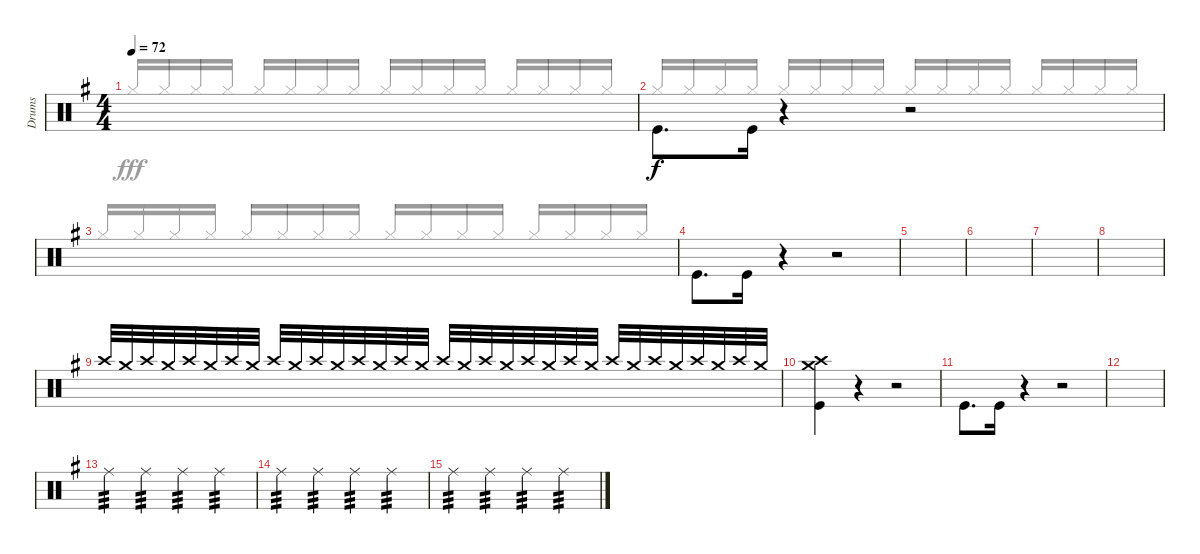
\track ("Drums" "Drums") {instrument percussion}
\staff {score}
\articulation defaults
\voice
\ts (4 4)
\tempo 72
\clef neutral
\ks g
|
"Kick (hit)".8{d beam Down} "Kick (hit)".16{beam Down} r.4 r.2 |
|
"Kick (hit)".8{d beam Down} "Kick (hit)".16{beam Down} r.4 r.2 |
|
|
|
|
"Crash high (hit)".32{beam Up} "Crash medium (hit)".32{beam Up} "Crash high (hit)".32{beam Up} "Crash medium (hit)".32{beam Up} "Crash high (hit)".32{beam Up} "Crash medium (hit)".32{beam Up} "Crash high (hit)".32{beam Up} "Crash medium (hit)".32{beam Up} "Crash high (hit)".32{beam Up} "Crash medium (hit)".32{beam Up} "Crash high (hit)".32{beam Up} "Crash medium (hit)".32{beam Up} "Crash high (hit)".32{beam Up} "Crash medium (hit)".32{beam Up} "Crash high (hit)".32{beam Up} "Crash medium (hit)".32{beam Up} "Crash high (hit)".32{beam Up} "Crash medium (hit)".32{beam Up} "Crash high (hit)".32{beam Up} "Crash medium (hit)".32{beam Up} "Crash high (hit)".32{beam Up} "Crash medium (hit)".32{beam Up} "Crash high (hit)".32{beam Up} "Crash medium (hit)".32{beam Up} "Crash high (hit)".32{beam Up} "Crash medium (hit)".32{beam Up} "Crash high (hit)".32{beam Up} "Crash medium (hit)".32{beam Up} "Crash high (hit)".32{beam Up} "Crash medium (hit)".32{beam Up} "Crash high (hit)".32{beam Up} "Crash medium (hit)".32{beam Up} |
("Crash medium (hit)" "Crash high (hit)" "Kick (hit)").4 r.4 r.2 |
"Kick (hit)".8{d beam Down} "Kick (hit)".16{beam Down} r.4 r.2 |
|
"Ride (middle)".4{tp 3} "Ride (middle)".4{tp 3} "Ride (middle)".4{tp 3} "Ride (middle)".4{tp 3} |
"Ride (middle)".4{tp 3} "Ride (middle)".4{tp 3} "Ride (middle)".4{tp 3} "Ride (middle)".4{tp 3} |
"Ride (middle)".4{tp 3} "Ride (middle)".4{tp 3} "Ride (middle)".4{tp 3} "Ride (middle)".4{tp 3} |
\voice
\clef neutral
\ottava regular
\simile none
\ks g "Hi-Hat (closed)".16{dy fff beam Up} "Hi-Hat (closed)".16{beam Up} "Hi-Hat (closed)".16{beam Up} "Hi-Hat (closed)".16{beam Up} "Hi-Hat (closed)".16{beam Up} "Hi-Hat (closed)".16{beam Up} "Hi-Hat (closed)".16{beam Up} "Hi-Hat (closed)".16{beam Up} "Hi-Hat (closed)".16{beam Up} "Hi-Hat (closed)".16{beam Up} "Hi-Hat (closed)".16{beam Up} "Hi-Hat (closed)".16{beam Up} "Hi-Hat (closed)".16{beam Up} "Hi-Hat (closed)".16{beam Up} "Hi-Hat (closed)".16{beam Up} "Hi-Hat (closed)".16{beam Up}
|
"Hi-Hat (closed)".16{beam Up} "Hi-Hat (closed)".16{beam Up} "Hi-Hat (closed)".16{beam Up} "Hi-Hat (closed)".16{beam Up} "Hi-Hat (closed)".16{beam Up} "Hi-Hat (closed)".16{beam Up} "Hi-Hat (closed)".16{beam Up} "Hi-Hat (closed)".16{beam Up} "Hi-Hat (closed)".16{beam Up} "Hi-Hat (closed)".16{beam Up} "Hi-Hat (closed)".16{beam Up} "Hi-Hat (closed)".16{beam Up} "Hi-Hat (closed)".16{beam Up} "Hi-Hat (closed)".16{beam Up} "Hi-Hat (closed)".16{beam Up} "Hi-Hat (closed)".16{beam Up} |
"Hi-Hat (closed)".16{beam Up} "Hi-Hat (closed)".16{beam Up} "Hi-Hat (closed)".16{beam Up} "Hi-Hat (closed)".16{beam Up} "Hi-Hat (closed)".16{beam Up} "Hi-Hat (closed)".16{beam Up} "Hi-Hat (closed)".16{beam Up} "Hi-Hat (closed)".16{beam Up} "Hi-Hat (closed)".16{beam Up} "Hi-Hat (closed)".16{beam Up} "Hi-Hat (closed)".16{beam Up} "Hi-Hat (closed)".16{beam Up} "Hi-Hat (closed)".16{beam Up} "Hi-Hat (closed)".16{beam Up} "Hi-Hat (closed)".16{beam Up} "Hi-Hat (closed)".16{beam Up} |
|
|
|
|
|
|
|
|
|
|
|
|
